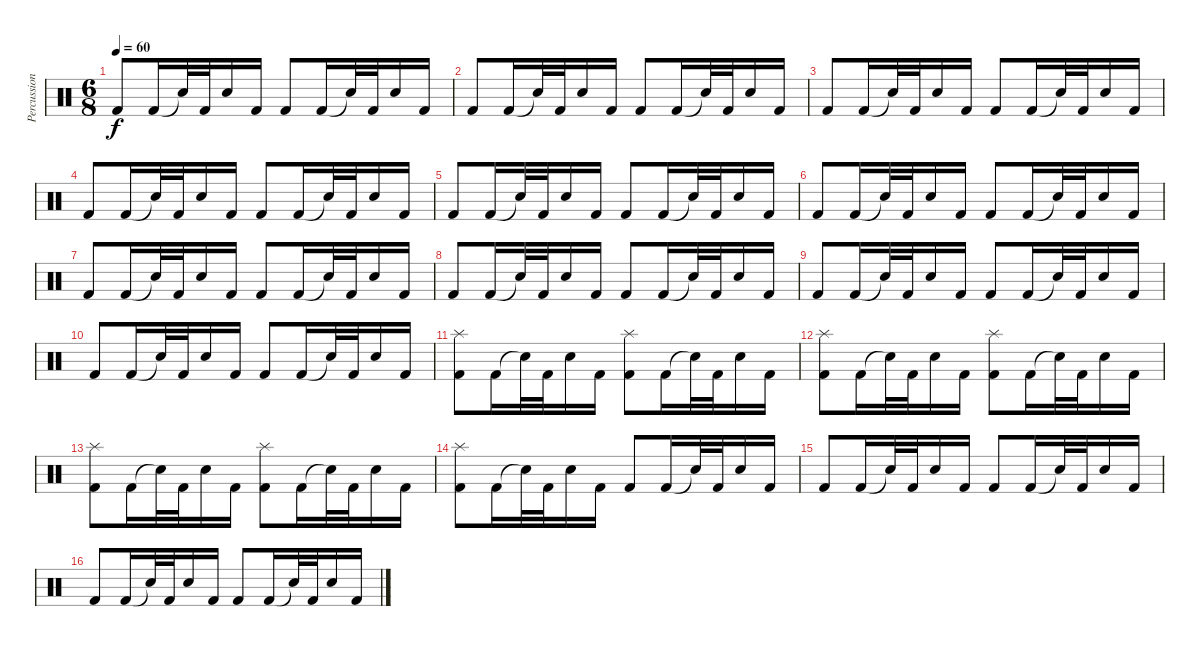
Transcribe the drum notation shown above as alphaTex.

\track ("Percussion" "Percussion") {instrument percussion}
\staff {score}
\articulation defaults
\ts (6 8)
\tempo 60
\clef neutral
\ks c "Kick (hit) 2".8{dy f} "Kick (hit) 2".16 "Snare (hit)"{t}.32 "Kick (hit) 2".32 "Snare (hit) 2".16 "Kick (hit) 2".16 "Kick (hit) 2".8 "Kick (hit) 2".16 "Snare (hit)"{t}.32 "Kick (hit) 2".32 "Snare (hit) 2".16 "Kick (hit) 2".16
|
"Kick (hit) 2".8 "Kick (hit) 2".16 "Snare (hit)"{t}.32 "Kick (hit) 2".32 "Snare (hit) 2".16 "Kick (hit) 2".16 "Kick (hit) 2".8 "Kick (hit) 2".16 "Snare (hit)"{t}.32 "Kick (hit) 2".32 "Snare (hit) 2".16 "Kick (hit) 2".16 |
"Kick (hit) 2".8 "Kick (hit) 2".16 "Snare (hit)"{t}.32 "Kick (hit) 2".32 "Snare (hit) 2".16 "Kick (hit) 2".16 "Kick (hit) 2".8 "Kick (hit) 2".16 "Snare (hit)"{t}.32 "Kick (hit) 2".32 "Snare (hit) 2".16 "Kick (hit) 2".16 |
"Kick (hit) 2".8 "Kick (hit) 2".16 "Snare (hit)"{t}.32 "Kick (hit) 2".32 "Snare (hit) 2".16 "Kick (hit) 2".16 "Kick (hit) 2".8 "Kick (hit) 2".16 "Snare (hit)"{t}.32 "Kick (hit) 2".32 "Snare (hit) 2".16 "Kick (hit) 2".16 |
"Kick (hit) 2".8 "Kick (hit) 2".16 "Snare (hit)"{t}.32 "Kick (hit) 2".32 "Snare (hit) 2".16 "Kick (hit) 2".16 "Kick (hit) 2".8 "Kick (hit) 2".16 "Snare (hit)"{t}.32 "Kick (hit) 2".32 "Snare (hit) 2".16 "Kick (hit) 2".16 |
"Kick (hit) 2".8 "Kick (hit) 2".16 "Snare (hit)"{t}.32 "Kick (hit) 2".32 "Snare (hit) 2".16 "Kick (hit) 2".16 "Kick (hit) 2".8 "Kick (hit) 2".16 "Snare (hit)"{t}.32 "Kick (hit) 2".32 "Snare (hit) 2".16 "Kick (hit) 2".16 |
"Kick (hit) 2".8 "Kick (hit) 2".16 "Snare (hit)"{t}.32 "Kick (hit) 2".32 "Snare (hit) 2".16 "Kick (hit) 2".16 "Kick (hit) 2".8 "Kick (hit) 2".16 "Snare (hit)"{t}.32 "Kick (hit) 2".32 "Snare (hit) 2".16 "Kick (hit) 2".16 |
"Kick (hit) 2".8 "Kick (hit) 2".16 "Snare (hit)"{t}.32 "Kick (hit) 2".32 "Snare (hit) 2".16 "Kick (hit) 2".16 "Kick (hit) 2".8 "Kick (hit) 2".16 "Snare (hit)"{t}.32 "Kick (hit) 2".32 "Snare (hit) 2".16 "Kick (hit) 2".16 |
"Kick (hit) 2".8 "Kick (hit) 2".16 "Snare (hit)"{t}.32 "Kick (hit) 2".32 "Snare (hit) 2".16 "Kick (hit) 2".16 "Kick (hit) 2".8 "Kick (hit) 2".16 "Snare (hit)"{t}.32 "Kick (hit) 2".32 "Snare (hit) 2".16 "Kick (hit) 2".16 |
"Kick (hit) 2".8 "Kick (hit) 2".16 "Snare (hit)"{t}.32 "Kick (hit) 2".32 "Snare (hit) 2".16 "Kick (hit) 2".16 "Kick (hit) 2".8 "Kick (hit) 2".16 "Snare (hit)"{t}.32 "Kick (hit) 2".32 "Snare (hit) 2".16 "Kick (hit) 2".16 |
("Splash (hit)" "Kick (hit) 2").8 "Kick (hit) 2".16 "Snare (hit)"{t}.32 "Kick (hit) 2".32 "Snare (hit) 2".16 "Kick (hit) 2".16 ("Splash (hit)" "Kick (hit) 2").8 "Kick (hit) 2".16 "Snare (hit)"{t}.32 "Kick (hit) 2".32 "Snare (hit) 2".16 "Kick (hit) 2".16 |
("Splash (hit)" "Kick (hit) 2").8 "Kick (hit) 2".16 "Snare (hit)"{t}.32 "Kick (hit) 2".32 "Snare (hit) 2".16 "Kick (hit) 2".16 ("Splash (hit)" "Kick (hit) 2").8 "Kick (hit) 2".16 "Snare (hit)"{t}.32 "Kick (hit) 2".32 "Snare (hit) 2".16 "Kick (hit) 2".16 |
("Splash (hit)" "Kick (hit) 2").8 "Kick (hit) 2".16 "Snare (hit)"{t}.32 "Kick (hit) 2".32 "Snare (hit) 2".16 "Kick (hit) 2".16 ("Splash (hit)" "Kick (hit) 2").8 "Kick (hit) 2".16 "Snare (hit)"{t}.32 "Kick (hit) 2".32 "Snare (hit) 2".16 "Kick (hit) 2".16 |
("Splash (hit)" "Kick (hit) 2").8 "Kick (hit) 2".16 "Snare (hit)"{t}.32 "Kick (hit) 2".32 "Snare (hit) 2".16 "Kick (hit) 2".16 "Kick (hit) 2".8 "Kick (hit) 2".16 "Snare (hit)"{t}.32 "Kick (hit) 2".32 "Snare (hit) 2".16 "Kick (hit) 2".16 |
"Kick (hit) 2".8 "Kick (hit) 2".16 "Snare (hit)"{t}.32 "Kick (hit) 2".32 "Snare (hit) 2".16 "Kick (hit) 2".16 "Kick (hit) 2".8 "Kick (hit) 2".16 "Snare (hit)"{t}.32 "Kick (hit) 2".32 "Snare (hit) 2".16 "Kick (hit) 2".16 |
"Kick (hit) 2".8 "Kick (hit) 2".16 "Snare (hit)"{t}.32 "Kick (hit) 2".32 "Snare (hit) 2".16 "Kick (hit) 2".16 "Kick (hit) 2".8 "Kick (hit) 2".16 "Snare (hit)"{t}.32 "Kick (hit) 2".32 "Snare (hit) 2".16 "Kick (hit) 2".16
